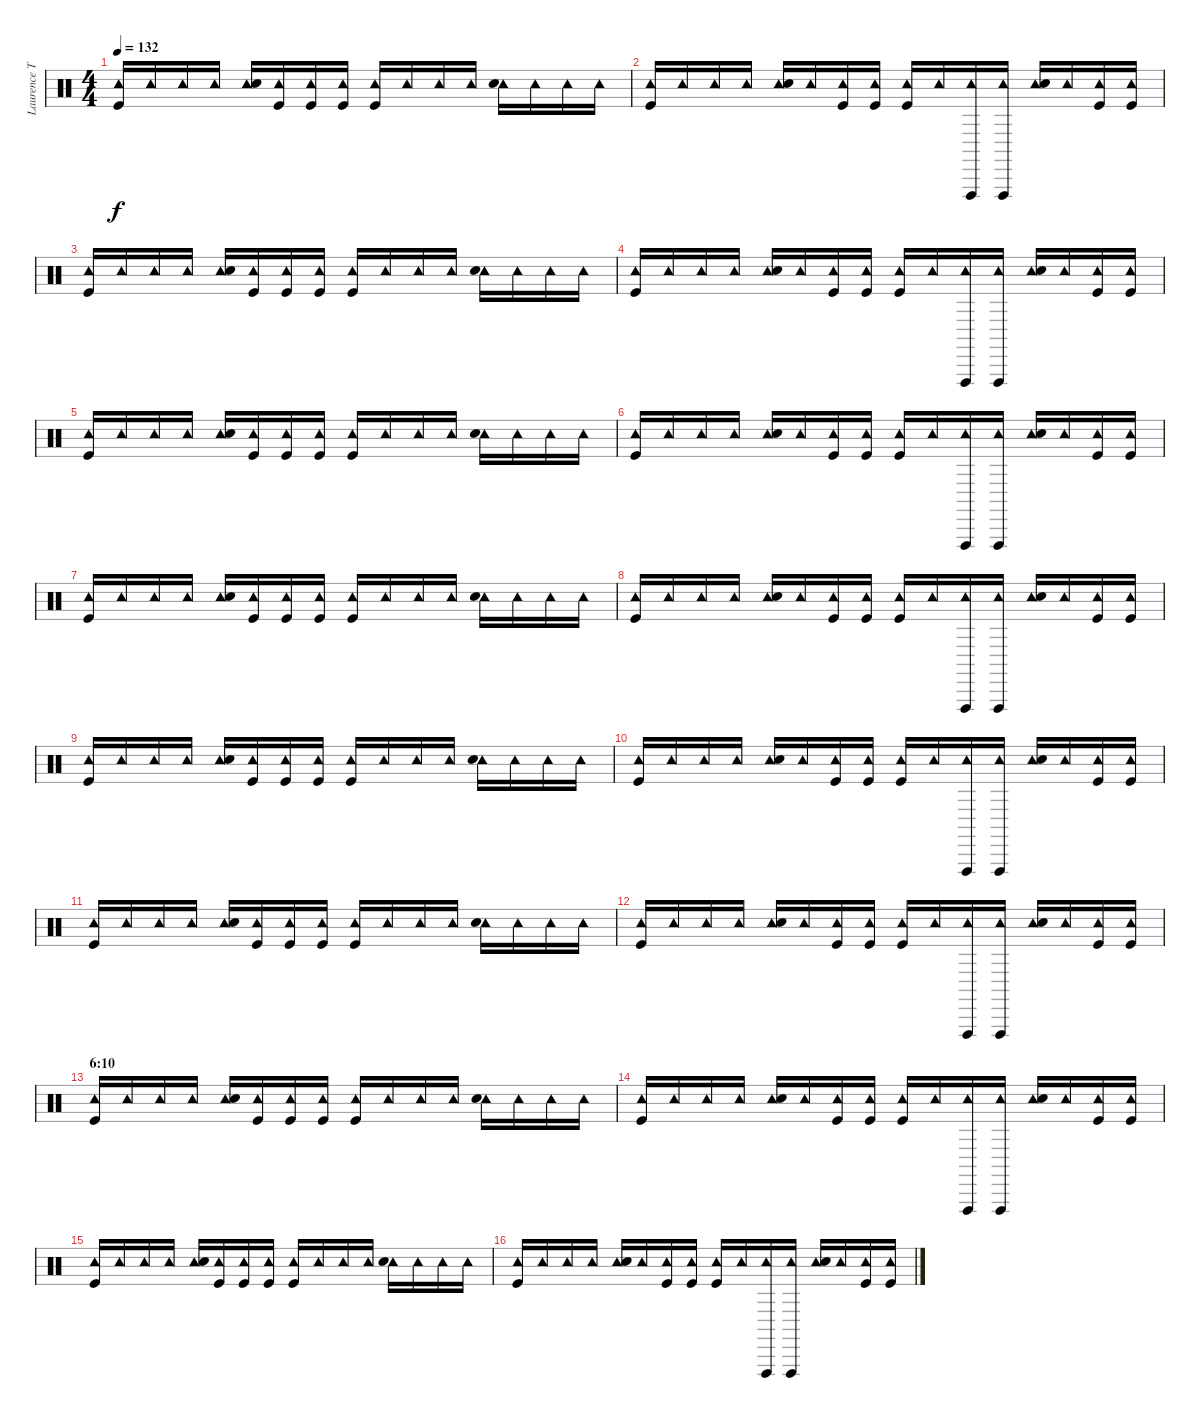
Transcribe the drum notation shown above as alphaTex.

\track ("Laurence Tolhurst (drums)" "Laurence T") {instrument percussion}
\staff {score}
\articulation defaults
\ts (4 4)
\tempo 132
\clef neutral
\ks c
("Tambourine (hit)" "Kick (hit)").16{dy f} "Tambourine (hit)".16 "Tambourine (hit)".16 "Tambourine (hit)".16 ("Tambourine (hit)" "Snare (hit) 2").16 ("Tambourine (hit)" "Kick (hit)").16 ("Tambourine (hit)" "Kick (hit)").16 ("Tambourine (hit)" "Kick (hit)").16 ("Tambourine (hit)" "Kick (hit)").16 "Tambourine (hit)".16 "Tambourine (hit)".16 "Tambourine (hit)".16 ("Tambourine (hit)" "Snare (hit) 2").16 "Tambourine (hit)".16 "Tambourine (hit)".16 "Tambourine (hit)".16 |
("Tambourine (hit)" "Kick (hit)").16 "Tambourine (hit)".16 "Tambourine (hit)".16 "Tambourine (hit)".16 ("Tambourine (hit)" "Snare (hit) 2").16 "Tambourine (hit)".16 ("Tambourine (hit)" "Kick (hit)").16 ("Tambourine (hit)" "Kick (hit)").16 ("Tambourine (hit)" "Kick (hit)").16 "Tambourine (hit)".16 ("Tambourine (hit)" "Vibraslap (hit)").16 ("Tambourine (hit)" "Vibraslap (hit)").16 ("Tambourine (hit)" "Snare (hit) 2").16 "Tambourine (hit)".16 ("Tambourine (hit)" "Kick (hit)").16 ("Tambourine (hit)" "Kick (hit)").16 |
("Tambourine (hit)" "Kick (hit)").16 "Tambourine (hit)".16 "Tambourine (hit)".16 "Tambourine (hit)".16 ("Tambourine (hit)" "Snare (hit) 2").16 ("Tambourine (hit)" "Kick (hit)").16 ("Tambourine (hit)" "Kick (hit)").16 ("Tambourine (hit)" "Kick (hit)").16 ("Tambourine (hit)" "Kick (hit)").16 "Tambourine (hit)".16 "Tambourine (hit)".16 "Tambourine (hit)".16 ("Tambourine (hit)" "Snare (hit) 2").16 "Tambourine (hit)".16 "Tambourine (hit)".16 "Tambourine (hit)".16 |
("Tambourine (hit)" "Kick (hit)").16 "Tambourine (hit)".16 "Tambourine (hit)".16 "Tambourine (hit)".16 ("Tambourine (hit)" "Snare (hit) 2").16 "Tambourine (hit)".16 ("Tambourine (hit)" "Kick (hit)").16 ("Tambourine (hit)" "Kick (hit)").16 ("Tambourine (hit)" "Kick (hit)").16 "Tambourine (hit)".16 ("Tambourine (hit)" "Vibraslap (hit)").16 ("Tambourine (hit)" "Vibraslap (hit)").16 ("Tambourine (hit)" "Snare (hit) 2").16 "Tambourine (hit)".16 ("Tambourine (hit)" "Kick (hit)").16 ("Tambourine (hit)" "Kick (hit)").16 |
("Tambourine (hit)" "Kick (hit)").16 "Tambourine (hit)".16 "Tambourine (hit)".16 "Tambourine (hit)".16 ("Tambourine (hit)" "Snare (hit) 2").16 ("Tambourine (hit)" "Kick (hit)").16 ("Tambourine (hit)" "Kick (hit)").16 ("Tambourine (hit)" "Kick (hit)").16 ("Tambourine (hit)" "Kick (hit)").16 "Tambourine (hit)".16 "Tambourine (hit)".16 "Tambourine (hit)".16 ("Tambourine (hit)" "Snare (hit) 2").16 "Tambourine (hit)".16 "Tambourine (hit)".16 "Tambourine (hit)".16 |
("Tambourine (hit)" "Kick (hit)").16 "Tambourine (hit)".16 "Tambourine (hit)".16 "Tambourine (hit)".16 ("Tambourine (hit)" "Snare (hit) 2").16 "Tambourine (hit)".16 ("Tambourine (hit)" "Kick (hit)").16 ("Tambourine (hit)" "Kick (hit)").16 ("Tambourine (hit)" "Kick (hit)").16 "Tambourine (hit)".16 ("Tambourine (hit)" "Vibraslap (hit)").16 ("Tambourine (hit)" "Vibraslap (hit)").16 ("Tambourine (hit)" "Snare (hit) 2").16 "Tambourine (hit)".16 ("Tambourine (hit)" "Kick (hit)").16 ("Tambourine (hit)" "Kick (hit)").16 |
("Tambourine (hit)" "Kick (hit)").16 "Tambourine (hit)".16 "Tambourine (hit)".16 "Tambourine (hit)".16 ("Tambourine (hit)" "Snare (hit) 2").16 ("Tambourine (hit)" "Kick (hit)").16 ("Tambourine (hit)" "Kick (hit)").16 ("Tambourine (hit)" "Kick (hit)").16 ("Tambourine (hit)" "Kick (hit)").16 "Tambourine (hit)".16 "Tambourine (hit)".16 "Tambourine (hit)".16 ("Tambourine (hit)" "Snare (hit) 2").16 "Tambourine (hit)".16 "Tambourine (hit)".16 "Tambourine (hit)".16 |
("Tambourine (hit)" "Kick (hit)").16 "Tambourine (hit)".16 "Tambourine (hit)".16 "Tambourine (hit)".16 ("Tambourine (hit)" "Snare (hit) 2").16 "Tambourine (hit)".16 ("Tambourine (hit)" "Kick (hit)").16 ("Tambourine (hit)" "Kick (hit)").16 ("Tambourine (hit)" "Kick (hit)").16 "Tambourine (hit)".16 ("Tambourine (hit)" "Vibraslap (hit)").16 ("Tambourine (hit)" "Vibraslap (hit)").16 ("Tambourine (hit)" "Snare (hit) 2").16 "Tambourine (hit)".16 ("Tambourine (hit)" "Kick (hit)").16 ("Tambourine (hit)" "Kick (hit)").16 |
("Tambourine (hit)" "Kick (hit)").16 "Tambourine (hit)".16 "Tambourine (hit)".16 "Tambourine (hit)".16 ("Tambourine (hit)" "Snare (hit) 2").16 ("Tambourine (hit)" "Kick (hit)").16 ("Tambourine (hit)" "Kick (hit)").16 ("Tambourine (hit)" "Kick (hit)").16 ("Tambourine (hit)" "Kick (hit)").16 "Tambourine (hit)".16 "Tambourine (hit)".16 "Tambourine (hit)".16 ("Tambourine (hit)" "Snare (hit) 2").16 "Tambourine (hit)".16 "Tambourine (hit)".16 "Tambourine (hit)".16 |
("Tambourine (hit)" "Kick (hit)").16 "Tambourine (hit)".16 "Tambourine (hit)".16 "Tambourine (hit)".16 ("Tambourine (hit)" "Snare (hit) 2").16 "Tambourine (hit)".16 ("Tambourine (hit)" "Kick (hit)").16 ("Tambourine (hit)" "Kick (hit)").16 ("Tambourine (hit)" "Kick (hit)").16 "Tambourine (hit)".16 ("Tambourine (hit)" "Vibraslap (hit)").16 ("Tambourine (hit)" "Vibraslap (hit)").16 ("Tambourine (hit)" "Snare (hit) 2").16 "Tambourine (hit)".16 ("Tambourine (hit)" "Kick (hit)").16 ("Tambourine (hit)" "Kick (hit)").16 |
("Tambourine (hit)" "Kick (hit)").16 "Tambourine (hit)".16 "Tambourine (hit)".16 "Tambourine (hit)".16 ("Tambourine (hit)" "Snare (hit) 2").16 ("Tambourine (hit)" "Kick (hit)").16 ("Tambourine (hit)" "Kick (hit)").16 ("Tambourine (hit)" "Kick (hit)").16 ("Tambourine (hit)" "Kick (hit)").16 "Tambourine (hit)".16 "Tambourine (hit)".16 "Tambourine (hit)".16 ("Tambourine (hit)" "Snare (hit) 2").16 "Tambourine (hit)".16 "Tambourine (hit)".16 "Tambourine (hit)".16 |
("Tambourine (hit)" "Kick (hit)").16 "Tambourine (hit)".16 "Tambourine (hit)".16 "Tambourine (hit)".16 ("Tambourine (hit)" "Snare (hit) 2").16 "Tambourine (hit)".16 ("Tambourine (hit)" "Kick (hit)").16 ("Tambourine (hit)" "Kick (hit)").16 ("Tambourine (hit)" "Kick (hit)").16 "Tambourine (hit)".16 ("Tambourine (hit)" "Vibraslap (hit)").16 ("Tambourine (hit)" "Vibraslap (hit)").16 ("Tambourine (hit)" "Snare (hit) 2").16 "Tambourine (hit)".16 ("Tambourine (hit)" "Kick (hit)").16 ("Tambourine (hit)" "Kick (hit)").16 |
\section ("" "6:10")
("Tambourine (hit)" "Kick (hit)").16 "Tambourine (hit)".16 "Tambourine (hit)".16 "Tambourine (hit)".16 ("Tambourine (hit)" "Snare (hit) 2").16 ("Tambourine (hit)" "Kick (hit)").16 ("Tambourine (hit)" "Kick (hit)").16 ("Tambourine (hit)" "Kick (hit)").16 ("Tambourine (hit)" "Kick (hit)").16 "Tambourine (hit)".16 "Tambourine (hit)".16 "Tambourine (hit)".16 ("Tambourine (hit)" "Snare (hit) 2").16 "Tambourine (hit)".16 "Tambourine (hit)".16 "Tambourine (hit)".16 |
("Tambourine (hit)" "Kick (hit)").16 "Tambourine (hit)".16 "Tambourine (hit)".16 "Tambourine (hit)".16 ("Tambourine (hit)" "Snare (hit) 2").16 "Tambourine (hit)".16 ("Tambourine (hit)" "Kick (hit)").16 ("Tambourine (hit)" "Kick (hit)").16 ("Tambourine (hit)" "Kick (hit)").16 "Tambourine (hit)".16 ("Tambourine (hit)" "Vibraslap (hit)").16 ("Tambourine (hit)" "Vibraslap (hit)").16 ("Tambourine (hit)" "Snare (hit) 2").16 "Tambourine (hit)".16 ("Tambourine (hit)" "Kick (hit)").16 ("Tambourine (hit)" "Kick (hit)").16 |
("Tambourine (hit)" "Kick (hit)").16 "Tambourine (hit)".16 "Tambourine (hit)".16 "Tambourine (hit)".16 ("Tambourine (hit)" "Snare (hit) 2").16 ("Tambourine (hit)" "Kick (hit)").16 ("Tambourine (hit)" "Kick (hit)").16 ("Tambourine (hit)" "Kick (hit)").16 ("Tambourine (hit)" "Kick (hit)").16 "Tambourine (hit)".16 "Tambourine (hit)".16 "Tambourine (hit)".16 ("Tambourine (hit)" "Snare (hit) 2").16 "Tambourine (hit)".16 "Tambourine (hit)".16 "Tambourine (hit)".16 |
("Tambourine (hit)" "Kick (hit)").16 "Tambourine (hit)".16 "Tambourine (hit)".16 "Tambourine (hit)".16 ("Tambourine (hit)" "Snare (hit) 2").16 "Tambourine (hit)".16 ("Tambourine (hit)" "Kick (hit)").16 ("Tambourine (hit)" "Kick (hit)").16 ("Tambourine (hit)" "Kick (hit)").16 "Tambourine (hit)".16 ("Tambourine (hit)" "Vibraslap (hit)").16 ("Tambourine (hit)" "Vibraslap (hit)").16 ("Tambourine (hit)" "Snare (hit) 2").16 "Tambourine (hit)".16 ("Tambourine (hit)" "Kick (hit)").16 ("Tambourine (hit)" "Kick (hit)").16
